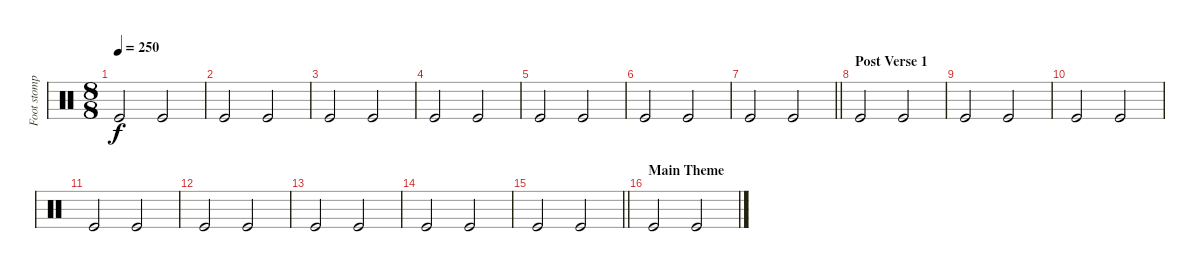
\track ("Foot stomp!" "Foot stomp") {instrument percussion}
\staff {score}
\articulation defaults
\ts (8 8)
\tempo 250
\clef neutral
\ks c "Kick (hit)".2{dy f} "Kick (hit)".2
|
"Kick (hit)".2 "Kick (hit)".2 |
"Kick (hit)".2 "Kick (hit)".2 |
"Kick (hit)".2 "Kick (hit)".2 |
"Kick (hit)".2 "Kick (hit)".2 |
"Kick (hit)".2 "Kick (hit)".2 |
\barLineRight lightlight "Kick (hit)".2 "Kick (hit)".2
|
\section ("" "Post Verse 1")
"Kick (hit)".2 "Kick (hit)".2 |
"Kick (hit)".2 "Kick (hit)".2 |
"Kick (hit)".2 "Kick (hit)".2 |
"Kick (hit)".2 "Kick (hit)".2 |
"Kick (hit)".2 "Kick (hit)".2 |
"Kick (hit)".2 "Kick (hit)".2 |
"Kick (hit)".2 "Kick (hit)".2 |
\barLineRight lightlight "Kick (hit)".2 "Kick (hit)".2
|
\section ("" "Main Theme")
"Kick (hit)".2 "Kick (hit)".2
